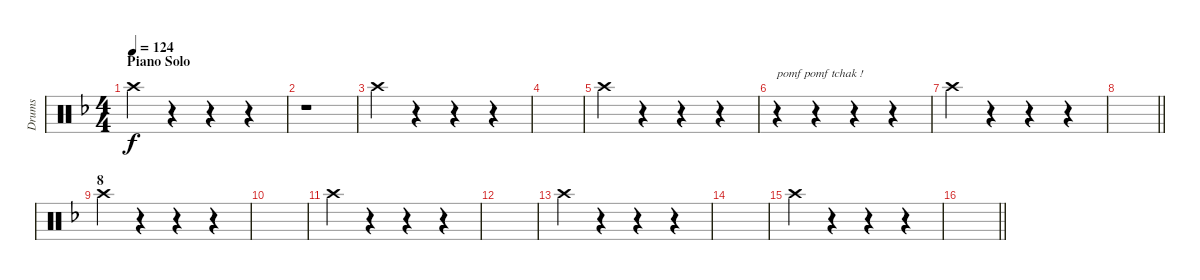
\track ("Drums" "Drums") {instrument percussion}
\staff {score}
\articulation defaults
\ts (4 4)
\section ("" "Piano Solo")
\tempo 124
\clef neutral
\ks f "Crash high (hit)".4{dy f}
r.4 r.4 r.4 |
r.1 |
"Crash high (hit)".4 r.4 r.4 r.4 |
|
"Crash high (hit)".4 r.4 r.4 r.4 |
r.4{txt "pomf pomf tchak !"} r.4 r.4 r.4 |
"Crash high (hit)".4 r.4 r.4 r.4 |
\barLineRight lightlight
|
\section ("" "8")
"Crash high (hit)".4 r.4 r.4 r.4 |
|
"Crash high (hit)".4 r.4 r.4 r.4 |
|
"Crash high (hit)".4 r.4 r.4 r.4 |
|
"Crash high (hit)".4 r.4 r.4 r.4 |
\barLineRight lightlight
